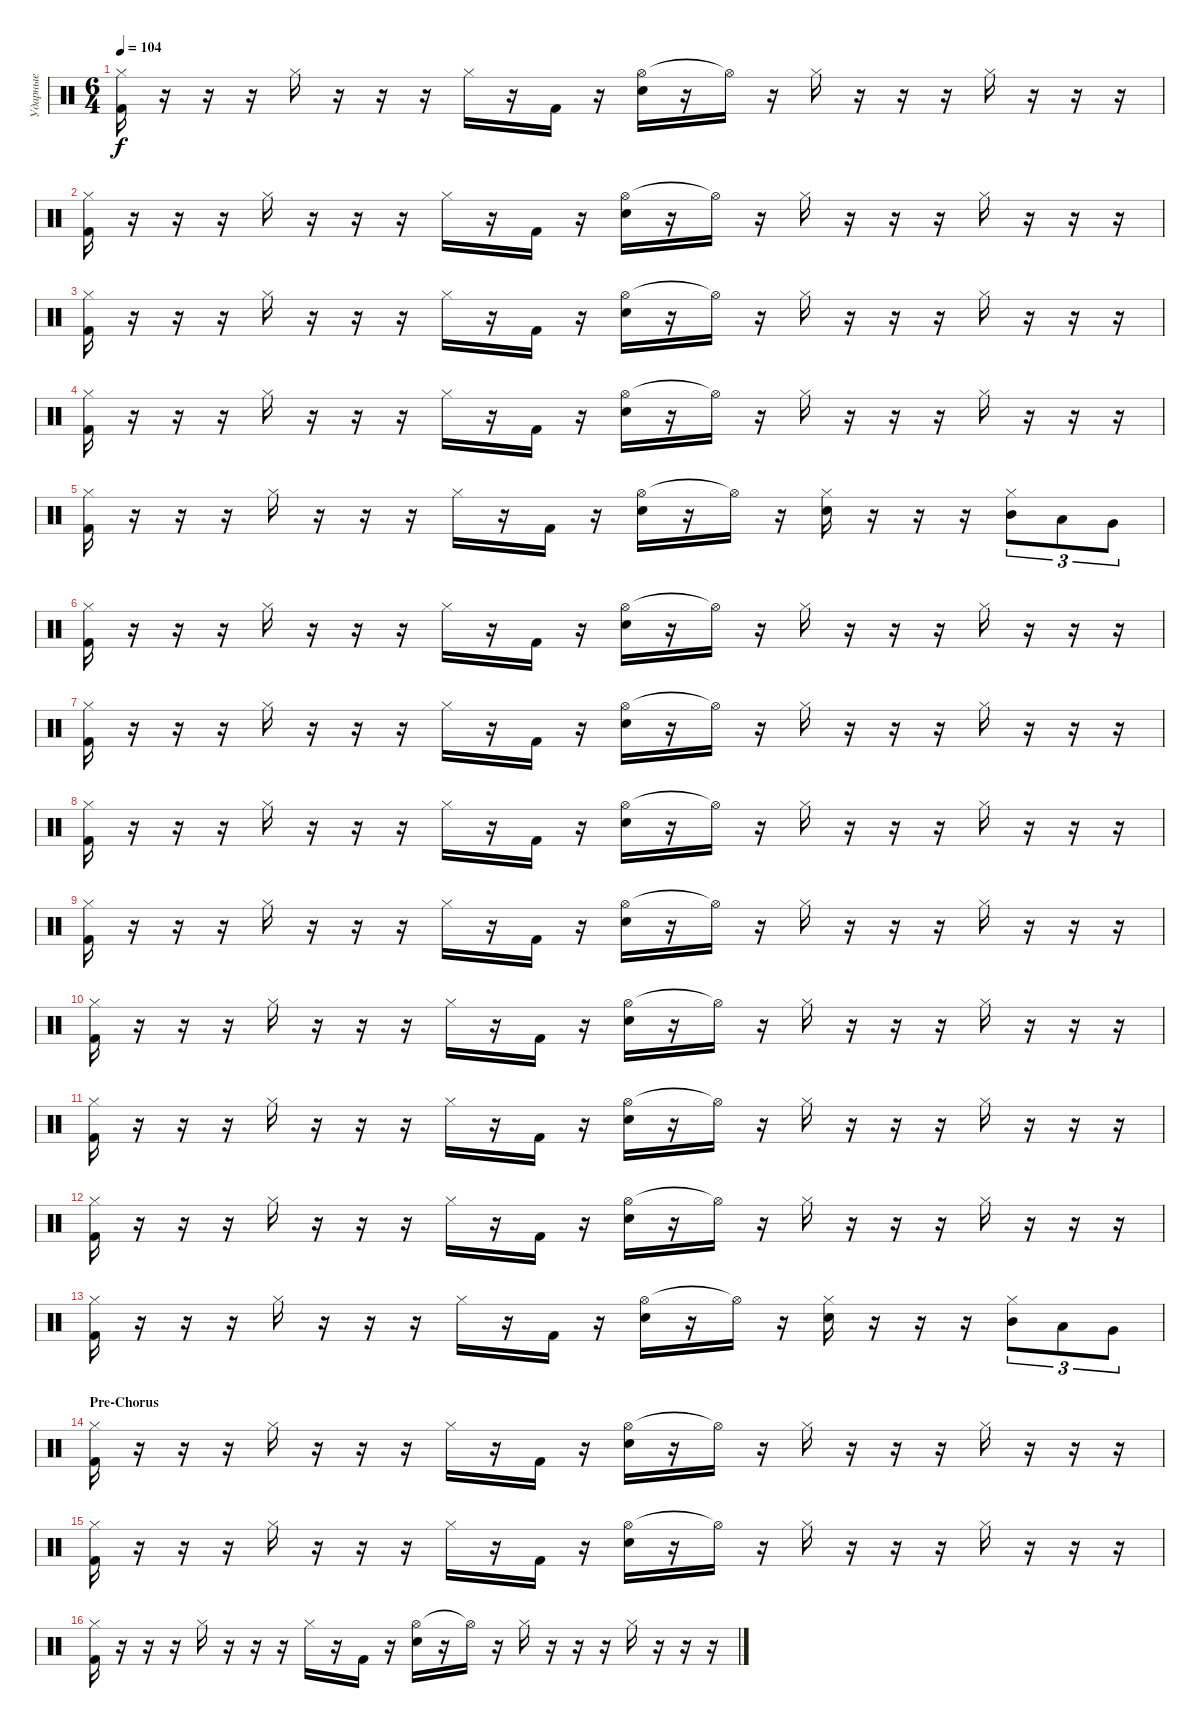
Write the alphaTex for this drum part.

\track ("Ударные" "Ударные") {instrument percussion}
\staff {score}
\articulation defaults
\ts (6 4)
\tempo 104
\clef neutral
\ks c
("Hi-Hat (closed)" "Kick (hit) 2").16{dy f} r.16 r.16 r.16 "Hi-Hat (closed)".16 r.16 r.16 r.16 "Hi-Hat (closed)".16 r.16 "Kick (hit) 2".16 r.16 ("Hi-Hat (open)" "Electric Snare (hit)").16 r.16 "Hi-Hat (open)"{t}.16 r.16 "Hi-Hat (closed)".16 r.16 r.16 r.16 "Hi-Hat (closed)".16 r.16 r.16 r.16 |
("Hi-Hat (closed)" "Kick (hit) 2").16 r.16 r.16 r.16 "Hi-Hat (closed)".16 r.16 r.16 r.16 "Hi-Hat (closed)".16 r.16 "Kick (hit) 2".16 r.16 ("Hi-Hat (open)" "Electric Snare (hit)").16 r.16 "Hi-Hat (open)"{t}.16 r.16 "Hi-Hat (closed)".16 r.16 r.16 r.16 "Hi-Hat (closed)".16 r.16 r.16 r.16 |
("Hi-Hat (closed)" "Kick (hit) 2").16 r.16 r.16 r.16 "Hi-Hat (closed)".16 r.16 r.16 r.16 "Hi-Hat (closed)".16 r.16 "Kick (hit) 2".16 r.16 ("Hi-Hat (open)" "Electric Snare (hit)").16 r.16 "Hi-Hat (open)"{t}.16 r.16 "Hi-Hat (closed)".16 r.16 r.16 r.16 "Hi-Hat (closed)".16 r.16 r.16 r.16 |
("Hi-Hat (closed)" "Kick (hit) 2").16 r.16 r.16 r.16 "Hi-Hat (closed)".16 r.16 r.16 r.16 "Hi-Hat (closed)".16 r.16 "Kick (hit) 2".16 r.16 ("Hi-Hat (open)" "Electric Snare (hit)").16 r.16 "Hi-Hat (open)"{t}.16 r.16 "Hi-Hat (closed)".16 r.16 r.16 r.16 "Hi-Hat (closed)".16 r.16 r.16 r.16 |
("Hi-Hat (closed)" "Kick (hit) 2").16 r.16 r.16 r.16 "Hi-Hat (closed)".16 r.16 r.16 r.16 "Hi-Hat (closed)".16 r.16 "Kick (hit) 2".16 r.16 ("Hi-Hat (open)" "Electric Snare (hit)").16 r.16 "Hi-Hat (open)"{t}.16 r.16 ("Hi-Hat (closed)" "Electric Snare (hit)").16 r.16 r.16 r.16 ("Hi-Hat (closed)" "Mid Tom (hit)").8{tu (3 2)} "Low Tom (hit)".8{tu (3 2)} "Very Low Tom (hit)".8{tu (3 2)} |
("Hi-Hat (closed)" "Kick (hit) 2").16 r.16 r.16 r.16 "Hi-Hat (closed)".16 r.16 r.16 r.16 "Hi-Hat (closed)".16 r.16 "Kick (hit) 2".16 r.16 ("Hi-Hat (open)" "Electric Snare (hit)").16 r.16 "Hi-Hat (open)"{t}.16 r.16 "Hi-Hat (closed)".16 r.16 r.16 r.16 "Hi-Hat (closed)".16 r.16 r.16 r.16 |
("Hi-Hat (closed)" "Kick (hit) 2").16 r.16 r.16 r.16 "Hi-Hat (closed)".16 r.16 r.16 r.16 "Hi-Hat (closed)".16 r.16 "Kick (hit) 2".16 r.16 ("Hi-Hat (open)" "Electric Snare (hit)").16 r.16 "Hi-Hat (open)"{t}.16 r.16 "Hi-Hat (closed)".16 r.16 r.16 r.16 "Hi-Hat (closed)".16 r.16 r.16 r.16 |
("Hi-Hat (closed)" "Kick (hit) 2").16 r.16 r.16 r.16 "Hi-Hat (closed)".16 r.16 r.16 r.16 "Hi-Hat (closed)".16 r.16 "Kick (hit) 2".16 r.16 ("Hi-Hat (open)" "Electric Snare (hit)").16 r.16 "Hi-Hat (open)"{t}.16 r.16 "Hi-Hat (closed)".16 r.16 r.16 r.16 "Hi-Hat (closed)".16 r.16 r.16 r.16 |
("Hi-Hat (closed)" "Kick (hit) 2").16 r.16 r.16 r.16 "Hi-Hat (closed)".16 r.16 r.16 r.16 "Hi-Hat (closed)".16 r.16 "Kick (hit) 2".16 r.16 ("Hi-Hat (open)" "Electric Snare (hit)").16 r.16 "Hi-Hat (open)"{t}.16 r.16 "Hi-Hat (closed)".16 r.16 r.16 r.16 "Hi-Hat (closed)".16 r.16 r.16 r.16 |
("Hi-Hat (closed)" "Kick (hit) 2").16 r.16 r.16 r.16 "Hi-Hat (closed)".16 r.16 r.16 r.16 "Hi-Hat (closed)".16 r.16 "Kick (hit) 2".16 r.16 ("Hi-Hat (open)" "Electric Snare (hit)").16 r.16 "Hi-Hat (open)"{t}.16 r.16 "Hi-Hat (closed)".16 r.16 r.16 r.16 "Hi-Hat (closed)".16 r.16 r.16 r.16 |
("Hi-Hat (closed)" "Kick (hit) 2").16 r.16 r.16 r.16 "Hi-Hat (closed)".16 r.16 r.16 r.16 "Hi-Hat (closed)".16 r.16 "Kick (hit) 2".16 r.16 ("Hi-Hat (open)" "Electric Snare (hit)").16 r.16 "Hi-Hat (open)"{t}.16 r.16 "Hi-Hat (closed)".16 r.16 r.16 r.16 "Hi-Hat (closed)".16 r.16 r.16 r.16 |
("Hi-Hat (closed)" "Kick (hit) 2").16 r.16 r.16 r.16 "Hi-Hat (closed)".16 r.16 r.16 r.16 "Hi-Hat (closed)".16 r.16 "Kick (hit) 2".16 r.16 ("Hi-Hat (open)" "Electric Snare (hit)").16 r.16 "Hi-Hat (open)"{t}.16 r.16 "Hi-Hat (closed)".16 r.16 r.16 r.16 "Hi-Hat (closed)".16 r.16 r.16 r.16 |
("Hi-Hat (closed)" "Kick (hit) 2").16 r.16 r.16 r.16 "Hi-Hat (closed)".16 r.16 r.16 r.16 "Hi-Hat (closed)".16 r.16 "Kick (hit) 2".16 r.16 ("Hi-Hat (open)" "Electric Snare (hit)").16 r.16 "Hi-Hat (open)"{t}.16 r.16 ("Hi-Hat (closed)" "Electric Snare (hit)").16 r.16 r.16 r.16 ("Hi-Hat (closed)" "Mid Tom (hit)").8{tu (3 2)} "Low Tom (hit)".8{tu (3 2)} "Very Low Tom (hit)".8{tu (3 2)} |
\section ("" "Pre-Chorus")
("Hi-Hat (closed)" "Kick (hit) 2").16 r.16 r.16 r.16 "Hi-Hat (closed)".16 r.16 r.16 r.16 "Hi-Hat (closed)".16 r.16 "Kick (hit) 2".16 r.16 ("Hi-Hat (open)" "Electric Snare (hit)").16 r.16 "Hi-Hat (open)"{t}.16 r.16 "Hi-Hat (closed)".16 r.16 r.16 r.16 "Hi-Hat (closed)".16 r.16 r.16 r.16 |
("Hi-Hat (closed)" "Kick (hit) 2").16 r.16 r.16 r.16 "Hi-Hat (closed)".16 r.16 r.16 r.16 "Hi-Hat (closed)".16 r.16 "Kick (hit) 2".16 r.16 ("Hi-Hat (open)" "Electric Snare (hit)").16 r.16 "Hi-Hat (open)"{t}.16 r.16 "Hi-Hat (closed)".16 r.16 r.16 r.16 "Hi-Hat (closed)".16 r.16 r.16 r.16 |
("Hi-Hat (closed)" "Kick (hit) 2").16 r.16 r.16 r.16 "Hi-Hat (closed)".16 r.16 r.16 r.16 "Hi-Hat (closed)".16 r.16 "Kick (hit) 2".16 r.16 ("Hi-Hat (open)" "Electric Snare (hit)").16 r.16 "Hi-Hat (open)"{t}.16 r.16 "Hi-Hat (closed)".16 r.16 r.16 r.16 "Hi-Hat (closed)".16 r.16 r.16 r.16
